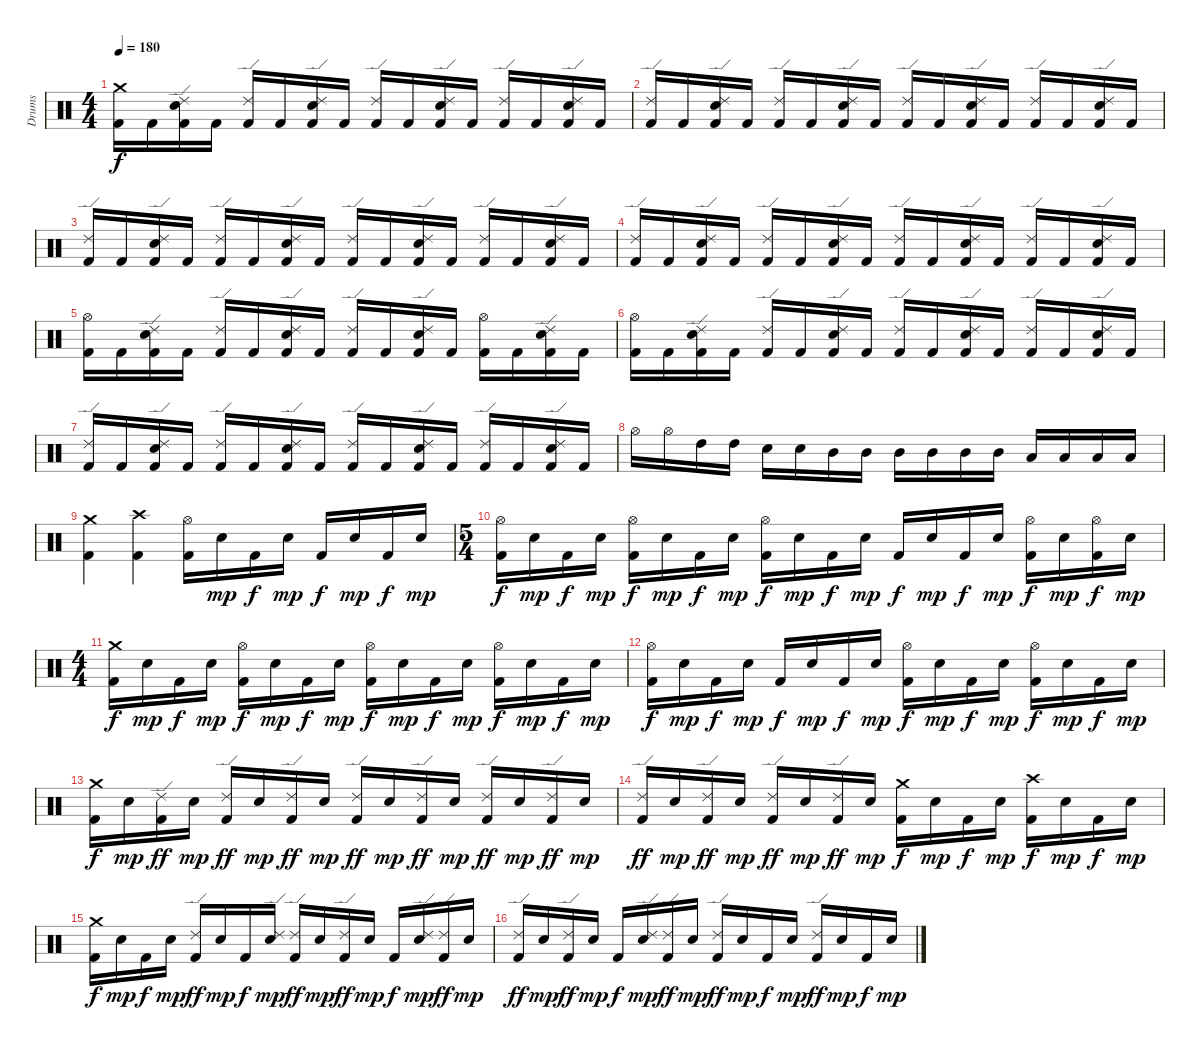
\track ("Drums" "Drums") {instrument percussion}
\staff {score}
\articulation defaults
\ts (4 4)
\tempo 180
\clef neutral
\ks c
("Crash medium (hit)" "Kick (hit) 2").16{dy f} "Kick (hit) 2".16 ("Ride (edge) 2" "Electric Snare (hit)" "Kick (hit) 2").16 "Kick (hit) 2".16 ("Ride (edge) 2" "Kick (hit) 2").16 "Kick (hit) 2".16 ("Ride (edge) 2" "Electric Snare (hit)" "Kick (hit) 2").16 "Kick (hit) 2".16 ("Ride (edge) 2" "Kick (hit) 2").16 "Kick (hit) 2".16 ("Ride (edge) 2" "Electric Snare (hit)" "Kick (hit) 2").16 "Kick (hit) 2".16 ("Ride (edge) 2" "Kick (hit) 2").16 "Kick (hit) 2".16 ("Ride (edge) 2" "Electric Snare (hit)" "Kick (hit) 2").16 "Kick (hit) 2".16 |
("Ride (edge) 2" "Kick (hit) 2").16 "Kick (hit) 2".16 ("Ride (edge) 2" "Electric Snare (hit)" "Kick (hit) 2").16 "Kick (hit) 2".16 ("Ride (edge) 2" "Kick (hit) 2").16 "Kick (hit) 2".16 ("Ride (edge) 2" "Electric Snare (hit)" "Kick (hit) 2").16 "Kick (hit) 2".16 ("Ride (edge) 2" "Kick (hit) 2").16 "Kick (hit) 2".16 ("Ride (edge) 2" "Electric Snare (hit)" "Kick (hit) 2").16 "Kick (hit) 2".16 ("Ride (edge) 2" "Kick (hit) 2").16 "Kick (hit) 2".16 ("Ride (edge) 2" "Electric Snare (hit)" "Kick (hit) 2").16 "Kick (hit) 2".16 |
("Ride (edge) 2" "Kick (hit) 2").16 "Kick (hit) 2".16 ("Ride (edge) 2" "Electric Snare (hit)" "Kick (hit) 2").16 "Kick (hit) 2".16 ("Ride (edge) 2" "Kick (hit) 2").16 "Kick (hit) 2".16 ("Ride (edge) 2" "Electric Snare (hit)" "Kick (hit) 2").16 "Kick (hit) 2".16 ("Ride (edge) 2" "Kick (hit) 2").16 "Kick (hit) 2".16 ("Ride (edge) 2" "Electric Snare (hit)" "Kick (hit) 2").16 "Kick (hit) 2".16 ("Ride (edge) 2" "Kick (hit) 2").16 "Kick (hit) 2".16 ("Ride (edge) 2" "Electric Snare (hit)" "Kick (hit) 2").16 "Kick (hit) 2".16 |
("Ride (edge) 2" "Kick (hit) 2").16 "Kick (hit) 2".16 ("Ride (edge) 2" "Electric Snare (hit)" "Kick (hit) 2").16 "Kick (hit) 2".16 ("Ride (edge) 2" "Kick (hit) 2").16 "Kick (hit) 2".16 ("Ride (edge) 2" "Electric Snare (hit)" "Kick (hit) 2").16 "Kick (hit) 2".16 ("Ride (edge) 2" "Kick (hit) 2").16 "Kick (hit) 2".16 ("Ride (edge) 2" "Electric Snare (hit)" "Kick (hit) 2").16 "Kick (hit) 2".16 ("Ride (edge) 2" "Kick (hit) 2").16 "Kick (hit) 2".16 ("Ride (edge) 2" "Electric Snare (hit)" "Kick (hit) 2").16 "Kick (hit) 2".16 |
("Hi-Hat (open)" "Kick (hit) 2").16 "Kick (hit) 2".16 ("Ride (edge) 2" "Electric Snare (hit)" "Kick (hit) 2").16 "Kick (hit) 2".16 ("Ride (edge) 2" "Kick (hit) 2").16 "Kick (hit) 2".16 ("Ride (edge) 2" "Electric Snare (hit)" "Kick (hit) 2").16 "Kick (hit) 2".16 ("Ride (edge) 2" "Kick (hit) 2").16 "Kick (hit) 2".16 ("Ride (edge) 2" "Electric Snare (hit)" "Kick (hit) 2").16 "Kick (hit) 2".16 ("Hi-Hat (open)" "Kick (hit) 2").16 "Kick (hit) 2".16 ("Ride (edge) 2" "Electric Snare (hit)" "Kick (hit) 2").16 "Kick (hit) 2".16 |
("Hi-Hat (open)" "Kick (hit) 2").16 "Kick (hit) 2".16 ("Ride (edge) 2" "Electric Snare (hit)" "Kick (hit) 2").16 "Kick (hit) 2".16 ("Ride (edge) 2" "Kick (hit) 2").16 "Kick (hit) 2".16 ("Ride (edge) 2" "Electric Snare (hit)" "Kick (hit) 2").16 "Kick (hit) 2".16 ("Ride (edge) 2" "Kick (hit) 2").16 "Kick (hit) 2".16 ("Ride (edge) 2" "Electric Snare (hit)" "Kick (hit) 2").16 "Kick (hit) 2".16 ("Ride (edge) 2" "Kick (hit) 2").16 "Kick (hit) 2".16 ("Ride (edge) 2" "Electric Snare (hit)" "Kick (hit) 2").16 "Kick (hit) 2".16 |
("Ride (edge) 2" "Kick (hit) 2").16 "Kick (hit) 2".16 ("Ride (edge) 2" "Electric Snare (hit)" "Kick (hit) 2").16 "Kick (hit) 2".16 ("Ride (edge) 2" "Kick (hit) 2").16 "Kick (hit) 2".16 ("Ride (edge) 2" "Electric Snare (hit)" "Kick (hit) 2").16 "Kick (hit) 2".16 ("Ride (edge) 2" "Kick (hit) 2").16 "Kick (hit) 2".16 ("Ride (edge) 2" "Electric Snare (hit)" "Kick (hit) 2").16 "Kick (hit) 2".16 ("Ride (edge) 2" "Kick (hit) 2").16 "Kick (hit) 2".16 ("Ride (edge) 2" "Electric Snare (hit)" "Kick (hit) 2").16 "Kick (hit) 2".16 |
"Hi-Hat (open)".16 "Hi-Hat (open)".16 "High Tom (hit)".16 "High Tom (hit)".16 "Electric Snare (hit)".16 "Electric Snare (hit)".16 "Mid Tom (hit)".16 "Mid Tom (hit)".16 "Mid Tom (hit)".16 "Mid Tom (hit)".16 "Mid Tom (hit)".16 "Mid Tom (hit)".16 "Low Tom (hit)".16 "Low Tom (hit)".16 "Low Tom (hit)".16 "Low Tom (hit)".16 |
("Crash medium (hit)" "Kick (hit) 2").4 ("Crash high (hit)" "Kick (hit) 2").4 ("Hi-Hat (open)" "Kick (hit) 2").16 "Electric Snare (hit)".16{dy mp} "Kick (hit) 2".16{dy f} "Electric Snare (hit)".16{dy mp} "Kick (hit) 2".16{dy f} "Electric Snare (hit)".16{dy mp} "Kick (hit) 2".16{dy f} "Electric Snare (hit)".16{dy mp} |
\ts (5 4)
("Hi-Hat (open)" "Kick (hit) 2").16{dy f} "Electric Snare (hit)".16{dy mp} "Kick (hit) 2".16{dy f} "Electric Snare (hit)".16{dy mp} ("Hi-Hat (open)" "Kick (hit) 2").16{dy f} "Electric Snare (hit)".16{dy mp} "Kick (hit) 2".16{dy f} "Electric Snare (hit)".16{dy mp} ("Hi-Hat (open)" "Kick (hit) 2").16{dy f} "Electric Snare (hit)".16{dy mp} "Kick (hit) 2".16{dy f} "Electric Snare (hit)".16{dy mp} "Kick (hit) 2".16{dy f} "Electric Snare (hit)".16{dy mp} "Kick (hit) 2".16{dy f} "Electric Snare (hit)".16{dy mp} ("Hi-Hat (open)" "Kick (hit) 2").16{dy f} "Electric Snare (hit)".16{dy mp} ("Hi-Hat (open)" "Kick (hit) 2").16{dy f} "Electric Snare (hit)".16{dy mp} |
\ts (4 4)
("Crash medium (hit)" "Kick (hit) 2").16{dy f} "Electric Snare (hit)".16{dy mp} "Kick (hit) 2".16{dy f} "Electric Snare (hit)".16{dy mp} ("Hi-Hat (open)" "Kick (hit) 2").16{dy f} "Electric Snare (hit)".16{dy mp} "Kick (hit) 2".16{dy f} "Electric Snare (hit)".16{dy mp} ("Hi-Hat (open)" "Kick (hit) 2").16{dy f} "Electric Snare (hit)".16{dy mp} "Kick (hit) 2".16{dy f} "Electric Snare (hit)".16{dy mp} ("Hi-Hat (open)" "Kick (hit) 2").16{dy f} "Electric Snare (hit)".16{dy mp} "Kick (hit) 2".16{dy f} "Electric Snare (hit)".16{dy mp} |
("Hi-Hat (open)" "Kick (hit) 2").16{dy f} "Electric Snare (hit)".16{dy mp} "Kick (hit) 2".16{dy f} "Electric Snare (hit)".16{dy mp} "Kick (hit) 2".16{dy f} "Electric Snare (hit)".16{dy mp} "Kick (hit) 2".16{dy f} "Electric Snare (hit)".16{dy mp} ("Hi-Hat (open)" "Kick (hit) 2").16{dy f} "Electric Snare (hit)".16{dy mp} "Kick (hit) 2".16{dy f} "Electric Snare (hit)".16{dy mp} ("Hi-Hat (open)" "Kick (hit) 2").16{dy f} "Electric Snare (hit)".16{dy mp} "Kick (hit) 2".16{dy f} "Electric Snare (hit)".16{dy mp} |
("Crash medium (hit)" "Kick (hit) 2").16{dy f} "Electric Snare (hit)".16{dy mp} ("Ride (edge) 2" "Kick (hit) 2").16{dy ff} "Electric Snare (hit)".16{dy mp} ("Ride (edge) 2" "Kick (hit) 2").16{dy ff} "Electric Snare (hit)".16{dy mp} ("Ride (edge) 2" "Kick (hit) 2").16{dy ff} "Electric Snare (hit)".16{dy mp} ("Ride (edge) 2" "Kick (hit) 2").16{dy ff} "Electric Snare (hit)".16{dy mp} ("Ride (edge) 2" "Kick (hit) 2").16{dy ff} "Electric Snare (hit)".16{dy mp} ("Ride (edge) 2" "Kick (hit) 2").16{dy ff} "Electric Snare (hit)".16{dy mp} ("Ride (edge) 2" "Kick (hit) 2").16{dy ff} "Electric Snare (hit)".16{dy mp} |
("Ride (edge) 2" "Kick (hit) 2").16{dy ff} "Electric Snare (hit)".16{dy mp} ("Ride (edge) 2" "Kick (hit) 2").16{dy ff} "Electric Snare (hit)".16{dy mp} ("Ride (edge) 2" "Kick (hit) 2").16{dy ff} "Electric Snare (hit)".16{dy mp} ("Ride (edge) 2" "Kick (hit) 2").16{dy ff} "Electric Snare (hit)".16{dy mp} ("Crash medium (hit)" "Kick (hit) 2").16{dy f} "Electric Snare (hit)".16{dy mp} "Kick (hit) 2".16{dy f} "Electric Snare (hit)".16{dy mp} ("Crash high (hit)" "Kick (hit) 2").16{dy f} "Electric Snare (hit)".16{dy mp} "Kick (hit) 2".16{dy f} "Electric Snare (hit)".16{dy mp} |
("Crash medium (hit)" "Kick (hit) 2").16{dy f} "Electric Snare (hit)".16{dy mp} "Kick (hit) 2".16{dy f} "Electric Snare (hit)".16{dy mp} ("Ride (edge) 2" "Kick (hit) 2").16{dy ff} "Electric Snare (hit)".16{dy mp} "Kick (hit) 2".16{dy f} ("Ride (edge) 2" "Electric Snare (hit)").16{dy mp} ("Ride (edge) 2" "Kick (hit) 2").16{dy ff} "Electric Snare (hit)".16{dy mp} ("Ride (edge) 2" "Kick (hit) 2").16{dy ff} "Electric Snare (hit)".16{dy mp} "Kick (hit) 2".16{dy f} ("Ride (edge) 2" "Electric Snare (hit)").16{dy mp} ("Ride (edge) 2" "Kick (hit) 2").16{dy ff} "Electric Snare (hit)".16{dy mp} |
("Ride (edge) 2" "Kick (hit) 2").16{dy ff} "Electric Snare (hit)".16{dy mp} ("Ride (edge) 2" "Kick (hit) 2").16{dy ff} "Electric Snare (hit)".16{dy mp} "Kick (hit) 2".16{dy f} ("Ride (edge) 2" "Electric Snare (hit)").16{dy mp} ("Ride (edge) 2" "Kick (hit) 2").16{dy ff} "Electric Snare (hit)".16{dy mp} ("Ride (edge) 2" "Kick (hit) 2").16{dy ff} "Electric Snare (hit)".16{dy mp} "Kick (hit) 2".16{dy f} "Electric Snare (hit)".16{dy mp} ("Ride (edge) 2" "Kick (hit) 2").16{dy ff} "Electric Snare (hit)".16{dy mp} "Kick (hit) 2".16{dy f} "Electric Snare (hit)".16{dy mp}
